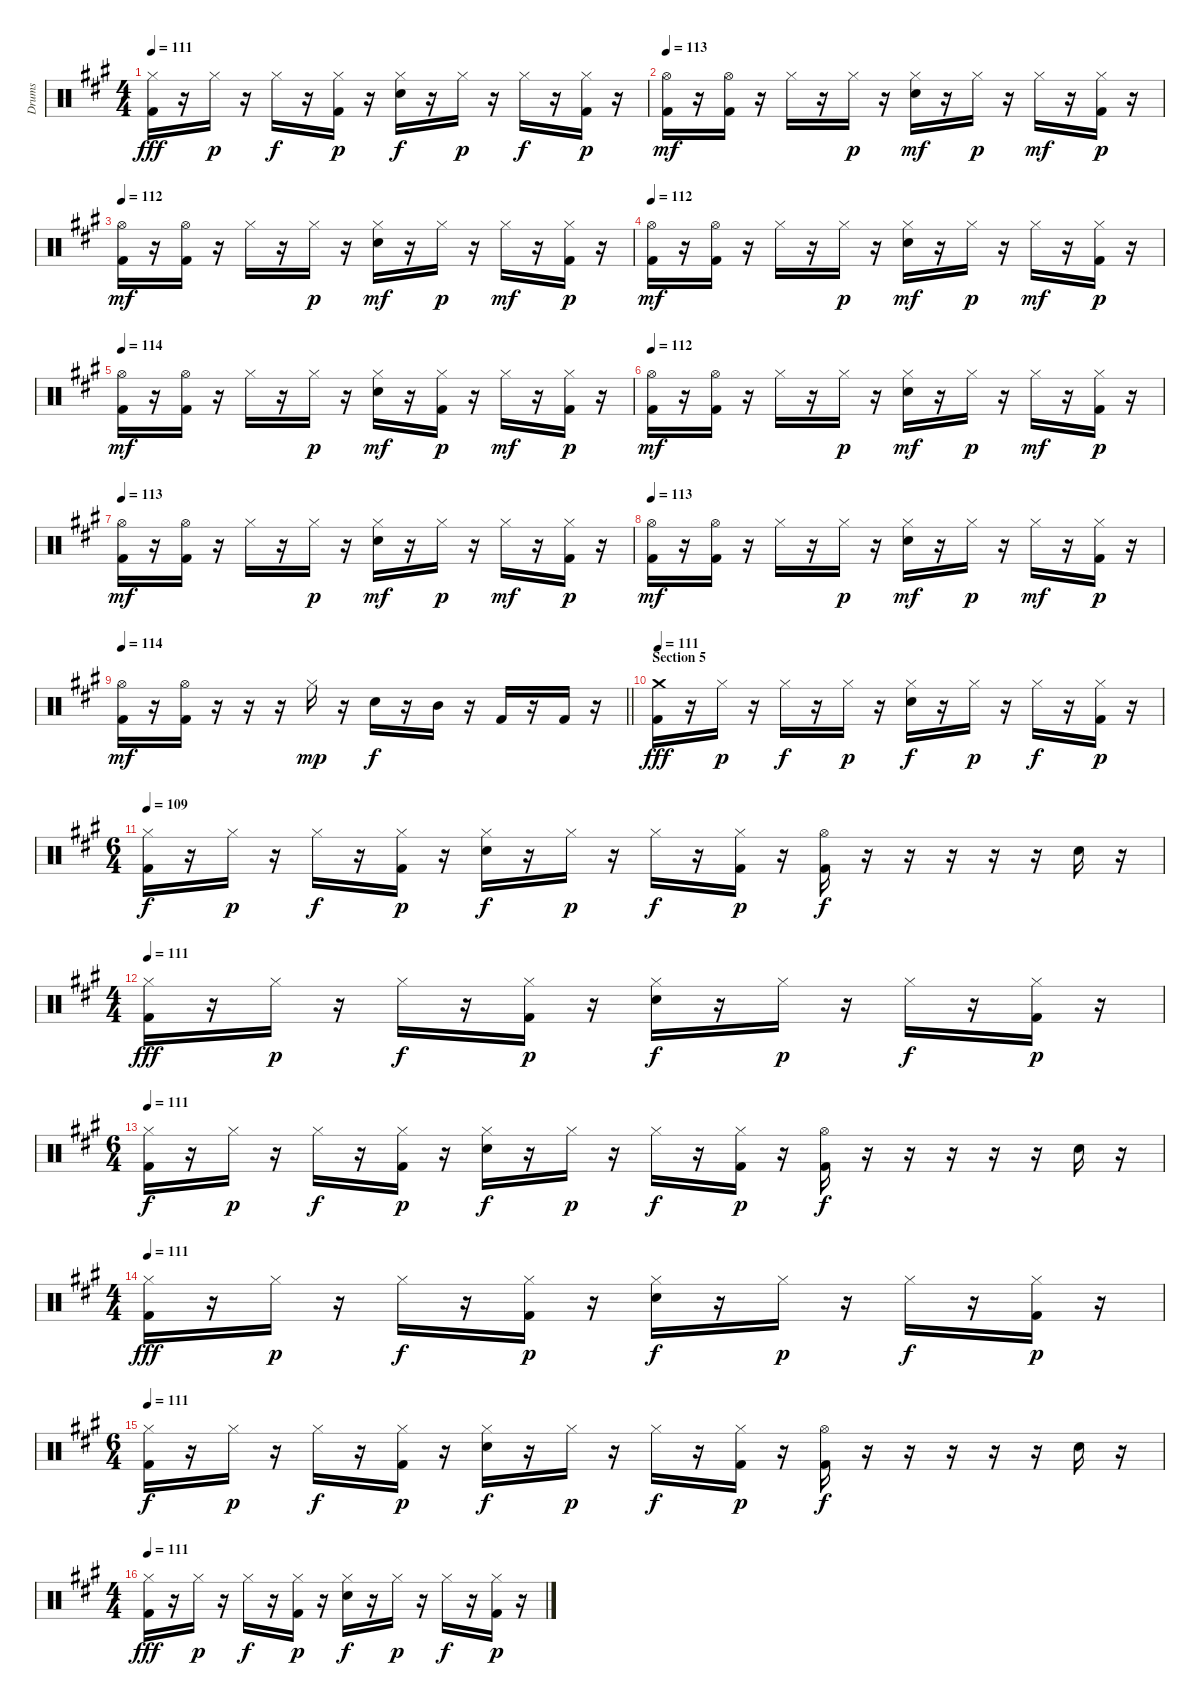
\track ("Drums" "Drums") {instrument percussion}
\staff {score}
\articulation defaults
\ts (4 4)
\tempo 111
\clef neutral
\ks f#minor
("Hi-Hat (closed)" "Kick (hit) 2").16{dy fff} r.16 "Hi-Hat (closed)".16{dy p} r.16 "Hi-Hat (closed)".16{dy f} r.16 ("Hi-Hat (closed)" "Kick (hit) 2").16{dy p} r.16 ("Hi-Hat (closed)" "Electric Snare (hit)").16{dy f} r.16 "Hi-Hat (closed)".16{dy p} r.16 "Hi-Hat (closed)".16{dy f} r.16 ("Hi-Hat (closed)" "Kick (hit) 2").16{dy p} r.16 |
\tempo 113
("Hi-Hat (open)" "Kick (hit) 2").16{dy mf} r.16 ("Hi-Hat (open)" "Kick (hit) 2").16 r.16 "Hi-Hat (closed)".16 r.16 "Hi-Hat (closed)".16{dy p} r.16 ("Hi-Hat (closed)" "Electric Snare (hit)").16{dy mf} r.16 "Hi-Hat (closed)".16{dy p} r.16 "Hi-Hat (closed)".16{dy mf} r.16 ("Hi-Hat (closed)" "Kick (hit) 2").16{dy p} r.16 |
\tempo 112
("Hi-Hat (open)" "Kick (hit) 2").16{dy mf} r.16 ("Hi-Hat (open)" "Kick (hit) 2").16 r.16 "Hi-Hat (closed)".16 r.16 "Hi-Hat (closed)".16{dy p} r.16 ("Hi-Hat (closed)" "Electric Snare (hit)").16{dy mf} r.16 "Hi-Hat (closed)".16{dy p} r.16 "Hi-Hat (closed)".16{dy mf} r.16 ("Hi-Hat (closed)" "Kick (hit) 2").16{dy p} r.16 |
\tempo 112
("Hi-Hat (open)" "Kick (hit) 2").16{dy mf} r.16 ("Hi-Hat (open)" "Kick (hit) 2").16 r.16 "Hi-Hat (closed)".16 r.16 "Hi-Hat (closed)".16{dy p} r.16 ("Hi-Hat (closed)" "Electric Snare (hit)").16{dy mf} r.16 "Hi-Hat (closed)".16{dy p} r.16 "Hi-Hat (closed)".16{dy mf} r.16 ("Hi-Hat (closed)" "Kick (hit) 2").16{dy p} r.16 |
\tempo 114
("Hi-Hat (open)" "Kick (hit) 2").16{dy mf} r.16 ("Hi-Hat (open)" "Kick (hit) 2").16 r.16 "Hi-Hat (closed)".16 r.16 "Hi-Hat (closed)".16{dy p} r.16 ("Hi-Hat (closed)" "Electric Snare (hit)").16{dy mf} r.16 ("Hi-Hat (closed)" "Kick (hit) 2").16{dy p} r.16 "Hi-Hat (closed)".16{dy mf} r.16 ("Hi-Hat (closed)" "Kick (hit) 2").16{dy p} r.16 |
\tempo 112
("Hi-Hat (open)" "Kick (hit) 2").16{dy mf} r.16 ("Hi-Hat (open)" "Kick (hit) 2").16 r.16 "Hi-Hat (closed)".16 r.16 "Hi-Hat (closed)".16{dy p} r.16 ("Hi-Hat (closed)" "Electric Snare (hit)").16{dy mf} r.16 "Hi-Hat (closed)".16{dy p} r.16 "Hi-Hat (closed)".16{dy mf} r.16 ("Hi-Hat (closed)" "Kick (hit) 2").16{dy p} r.16 |
\tempo 113
("Hi-Hat (open)" "Kick (hit) 2").16{dy mf} r.16 ("Hi-Hat (open)" "Kick (hit) 2").16 r.16 "Hi-Hat (closed)".16 r.16 "Hi-Hat (closed)".16{dy p} r.16 ("Hi-Hat (closed)" "Electric Snare (hit)").16{dy mf} r.16 "Hi-Hat (closed)".16{dy p} r.16 "Hi-Hat (closed)".16{dy mf} r.16 ("Hi-Hat (closed)" "Kick (hit) 2").16{dy p} r.16 |
\tempo 113
("Hi-Hat (open)" "Kick (hit) 2").16{dy mf} r.16 ("Hi-Hat (open)" "Kick (hit) 2").16 r.16 "Hi-Hat (closed)".16 r.16 "Hi-Hat (closed)".16{dy p} r.16 ("Hi-Hat (closed)" "Electric Snare (hit)").16{dy mf} r.16 "Hi-Hat (closed)".16{dy p} r.16 "Hi-Hat (closed)".16{dy mf} r.16 ("Hi-Hat (closed)" "Kick (hit) 2").16{dy p} r.16 |
\tempo 114
\barLineRight lightlight
("Hi-Hat (open)" "Kick (hit) 2").16{dy mf} r.16 ("Hi-Hat (open)" "Kick (hit) 2").16 r.16 r.16 r.16 "Hi-Hat (closed)".16{dy mp} r.16 "Electric Snare (hit)".16{dy f} r.16 "Mid Tom (hit)".16 r.16 "Kick (hit) 2".16 r.16 "Kick (hit) 2".16 r.16 |
\section ("" "Section 5")
\tempo 111
("Crash medium (hit)" "Kick (hit) 2").16{dy fff} r.16 "Hi-Hat (closed)".16{dy p} r.16 "Hi-Hat (closed)".16{dy f} r.16 "Hi-Hat (closed)".16{dy p} r.16 ("Hi-Hat (closed)" "Electric Snare (hit)").16{dy f} r.16 "Hi-Hat (closed)".16{dy p} r.16 "Hi-Hat (closed)".16{dy f} r.16 ("Hi-Hat (closed)" "Kick (hit) 2").16{dy p} r.16 |
\ts (6 4)
\tempo 109
("Hi-Hat (closed)" "Kick (hit) 2").16{dy f} r.16 "Hi-Hat (closed)".16{dy p} r.16 "Hi-Hat (closed)".16{dy f} r.16 ("Hi-Hat (closed)" "Kick (hit) 2").16{dy p} r.16 ("Hi-Hat (closed)" "Electric Snare (hit)").16{dy f} r.16 "Hi-Hat (closed)".16{dy p} r.16 "Hi-Hat (closed)".16{dy f} r.16 ("Hi-Hat (closed)" "Kick (hit) 2").16{dy p} r.16 ("Hi-Hat (open)" "Kick (hit) 2").16{dy f} r.16 r.16 r.16 r.16 r.16 "Electric Snare (hit)".16 r.16 |
\ts (4 4)
\tempo 111
("Hi-Hat (closed)" "Kick (hit) 2").16{dy fff} r.16 "Hi-Hat (closed)".16{dy p} r.16 "Hi-Hat (closed)".16{dy f} r.16 ("Hi-Hat (closed)" "Kick (hit) 2").16{dy p} r.16 ("Hi-Hat (closed)" "Electric Snare (hit)").16{dy f} r.16 "Hi-Hat (closed)".16{dy p} r.16 "Hi-Hat (closed)".16{dy f} r.16 ("Hi-Hat (closed)" "Kick (hit) 2").16{dy p} r.16 |
\ts (6 4)
\tempo 111
("Hi-Hat (closed)" "Kick (hit) 2").16{dy f} r.16 "Hi-Hat (closed)".16{dy p} r.16 "Hi-Hat (closed)".16{dy f} r.16 ("Hi-Hat (closed)" "Kick (hit) 2").16{dy p} r.16 ("Hi-Hat (closed)" "Electric Snare (hit)").16{dy f} r.16 "Hi-Hat (closed)".16{dy p} r.16 "Hi-Hat (closed)".16{dy f} r.16 ("Hi-Hat (closed)" "Kick (hit) 2").16{dy p} r.16 ("Hi-Hat (open)" "Kick (hit) 2").16{dy f} r.16 r.16 r.16 r.16 r.16 "Electric Snare (hit)".16 r.16 |
\ts (4 4)
\tempo 111
("Hi-Hat (closed)" "Kick (hit) 2").16{dy fff} r.16 "Hi-Hat (closed)".16{dy p} r.16 "Hi-Hat (closed)".16{dy f} r.16 ("Hi-Hat (closed)" "Kick (hit) 2").16{dy p} r.16 ("Hi-Hat (closed)" "Electric Snare (hit)").16{dy f} r.16 "Hi-Hat (closed)".16{dy p} r.16 "Hi-Hat (closed)".16{dy f} r.16 ("Hi-Hat (closed)" "Kick (hit) 2").16{dy p} r.16 |
\ts (6 4)
\tempo 111
("Hi-Hat (closed)" "Kick (hit) 2").16{dy f} r.16 "Hi-Hat (closed)".16{dy p} r.16 "Hi-Hat (closed)".16{dy f} r.16 ("Hi-Hat (closed)" "Kick (hit) 2").16{dy p} r.16 ("Hi-Hat (closed)" "Electric Snare (hit)").16{dy f} r.16 "Hi-Hat (closed)".16{dy p} r.16 "Hi-Hat (closed)".16{dy f} r.16 ("Hi-Hat (closed)" "Kick (hit) 2").16{dy p} r.16 ("Hi-Hat (open)" "Kick (hit) 2").16{dy f} r.16 r.16 r.16 r.16 r.16 "Electric Snare (hit)".16 r.16 |
\ts (4 4)
\tempo 111
("Hi-Hat (closed)" "Kick (hit) 2").16{dy fff} r.16 "Hi-Hat (closed)".16{dy p} r.16 "Hi-Hat (closed)".16{dy f} r.16 ("Hi-Hat (closed)" "Kick (hit) 2").16{dy p} r.16 ("Hi-Hat (closed)" "Electric Snare (hit)").16{dy f} r.16 "Hi-Hat (closed)".16{dy p} r.16 "Hi-Hat (closed)".16{dy f} r.16 ("Hi-Hat (closed)" "Kick (hit) 2").16{dy p} r.16
